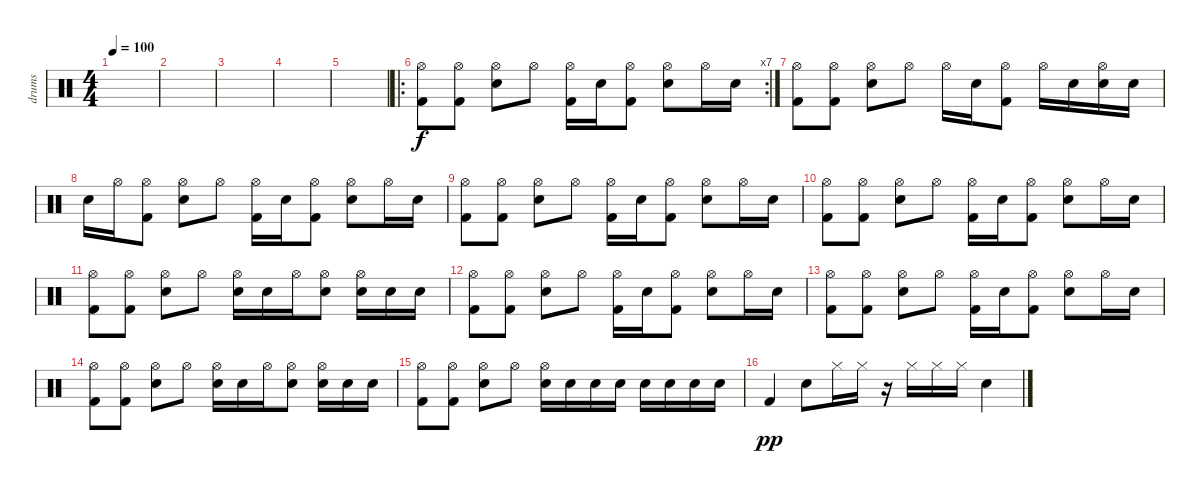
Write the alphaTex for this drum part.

\track ("drums" "drums") {instrument percussion}
\staff {score}
\articulation defaults
\ts (4 4)
\tempo 100
\clef neutral
\ks c
|
|
|
|
|
\ro
\rc 7
("Hi-Hat (open)" "Kick (hit) 2").8 ("Hi-Hat (open)" "Kick (hit) 2").8 ("Hi-Hat (open)" "Electric Snare (hit)").8 "Hi-Hat (open)".8 ("Hi-Hat (open)" "Kick (hit) 2").16 "Electric Snare (hit)".16 ("Hi-Hat (open)" "Kick (hit) 2").8 ("Hi-Hat (open)" "Electric Snare (hit)").8 "Hi-Hat (open)".16 "Electric Snare (hit)".16 |
("Hi-Hat (open)" "Kick (hit) 2").8 ("Hi-Hat (open)" "Kick (hit) 2").8 ("Hi-Hat (open)" "Electric Snare (hit)").8 "Hi-Hat (open)".8 "Hi-Hat (open)".16 "Electric Snare (hit)".16 ("Hi-Hat (open)" "Kick (hit) 2").8 "Hi-Hat (open)".16 "Electric Snare (hit)".16 ("Hi-Hat (open)" "Electric Snare (hit)").16 "Electric Snare (hit)".16 |
"Electric Snare (hit)".16 "Hi-Hat (open)".16 ("Hi-Hat (open)" "Kick (hit) 2").8 ("Hi-Hat (open)" "Electric Snare (hit)").8 "Hi-Hat (open)".8 ("Hi-Hat (open)" "Kick (hit) 2").16 "Electric Snare (hit)".16 ("Hi-Hat (open)" "Kick (hit) 2").8 ("Hi-Hat (open)" "Electric Snare (hit)").8 "Hi-Hat (open)".16 "Electric Snare (hit)".16 |
("Hi-Hat (open)" "Kick (hit) 2").8 ("Hi-Hat (open)" "Kick (hit) 2").8 ("Hi-Hat (open)" "Electric Snare (hit)").8 "Hi-Hat (open)".8 ("Hi-Hat (open)" "Kick (hit) 2").16 "Electric Snare (hit)".16 ("Hi-Hat (open)" "Kick (hit) 2").8 ("Hi-Hat (open)" "Electric Snare (hit)").8 "Hi-Hat (open)".16 "Electric Snare (hit)".16 |
("Hi-Hat (open)" "Kick (hit) 2").8 ("Hi-Hat (open)" "Kick (hit) 2").8 ("Hi-Hat (open)" "Electric Snare (hit)").8 "Hi-Hat (open)".8 ("Hi-Hat (open)" "Kick (hit) 2").16 "Electric Snare (hit)".16 ("Hi-Hat (open)" "Kick (hit) 2").8 ("Hi-Hat (open)" "Electric Snare (hit)").8 "Hi-Hat (open)".16 "Electric Snare (hit)".16 |
("Hi-Hat (open)" "Kick (hit) 2").8 ("Hi-Hat (open)" "Kick (hit) 2").8 ("Hi-Hat (open)" "Electric Snare (hit)").8 "Hi-Hat (open)".8 ("Hi-Hat (open)" "Electric Snare (hit)").16 "Electric Snare (hit)".16 "Hi-Hat (open)".16 ("Hi-Hat (open)" "Electric Snare (hit)").8 ("Hi-Hat (open)" "Electric Snare (hit)").16 "Electric Snare (hit)".16 "Electric Snare (hit)".16 |
("Hi-Hat (open)" "Kick (hit) 2").8 ("Hi-Hat (open)" "Kick (hit) 2").8 ("Hi-Hat (open)" "Electric Snare (hit)").8 "Hi-Hat (open)".8 ("Hi-Hat (open)" "Kick (hit) 2").16 "Electric Snare (hit)".16 ("Hi-Hat (open)" "Kick (hit) 2").8 ("Hi-Hat (open)" "Electric Snare (hit)").8 "Hi-Hat (open)".16 "Electric Snare (hit)".16 |
("Hi-Hat (open)" "Kick (hit) 2").8 ("Hi-Hat (open)" "Kick (hit) 2").8 ("Hi-Hat (open)" "Electric Snare (hit)").8 "Hi-Hat (open)".8 ("Hi-Hat (open)" "Kick (hit) 2").16 "Electric Snare (hit)".16 ("Hi-Hat (open)" "Kick (hit) 2").8 ("Hi-Hat (open)" "Electric Snare (hit)").8 "Hi-Hat (open)".16 "Electric Snare (hit)".16 |
("Hi-Hat (open)" "Kick (hit) 2").8 ("Hi-Hat (open)" "Kick (hit) 2").8 ("Hi-Hat (open)" "Electric Snare (hit)").8 "Hi-Hat (open)".8 ("Hi-Hat (open)" "Electric Snare (hit)").16 "Electric Snare (hit)".16 "Hi-Hat (open)".16 ("Hi-Hat (open)" "Electric Snare (hit)").8 ("Hi-Hat (open)" "Electric Snare (hit)").16 "Electric Snare (hit)".16 "Electric Snare (hit)".16 |
("Hi-Hat (open)" "Kick (hit) 2").8 ("Hi-Hat (open)" "Kick (hit) 2").8 ("Hi-Hat (open)" "Electric Snare (hit)").8 "Hi-Hat (open)".8 ("Hi-Hat (open)" "Electric Snare (hit)").16 "Electric Snare (hit)".16 "Electric Snare (hit)".16 "Electric Snare (hit)".16 "Electric Snare (hit)".16 "Electric Snare (hit)".16 "Electric Snare (hit)".16 "Electric Snare (hit)".16 |
"Kick (hit) 2".4{dy pp} "Electric Snare (hit)".8 "Hi-Hat (closed)".16 "Hi-Hat (closed)".16 r.16 "Hi-Hat (closed)".16 "Hi-Hat (closed)".16 "Hi-Hat (closed)".16 "Electric Snare (hit)".4
